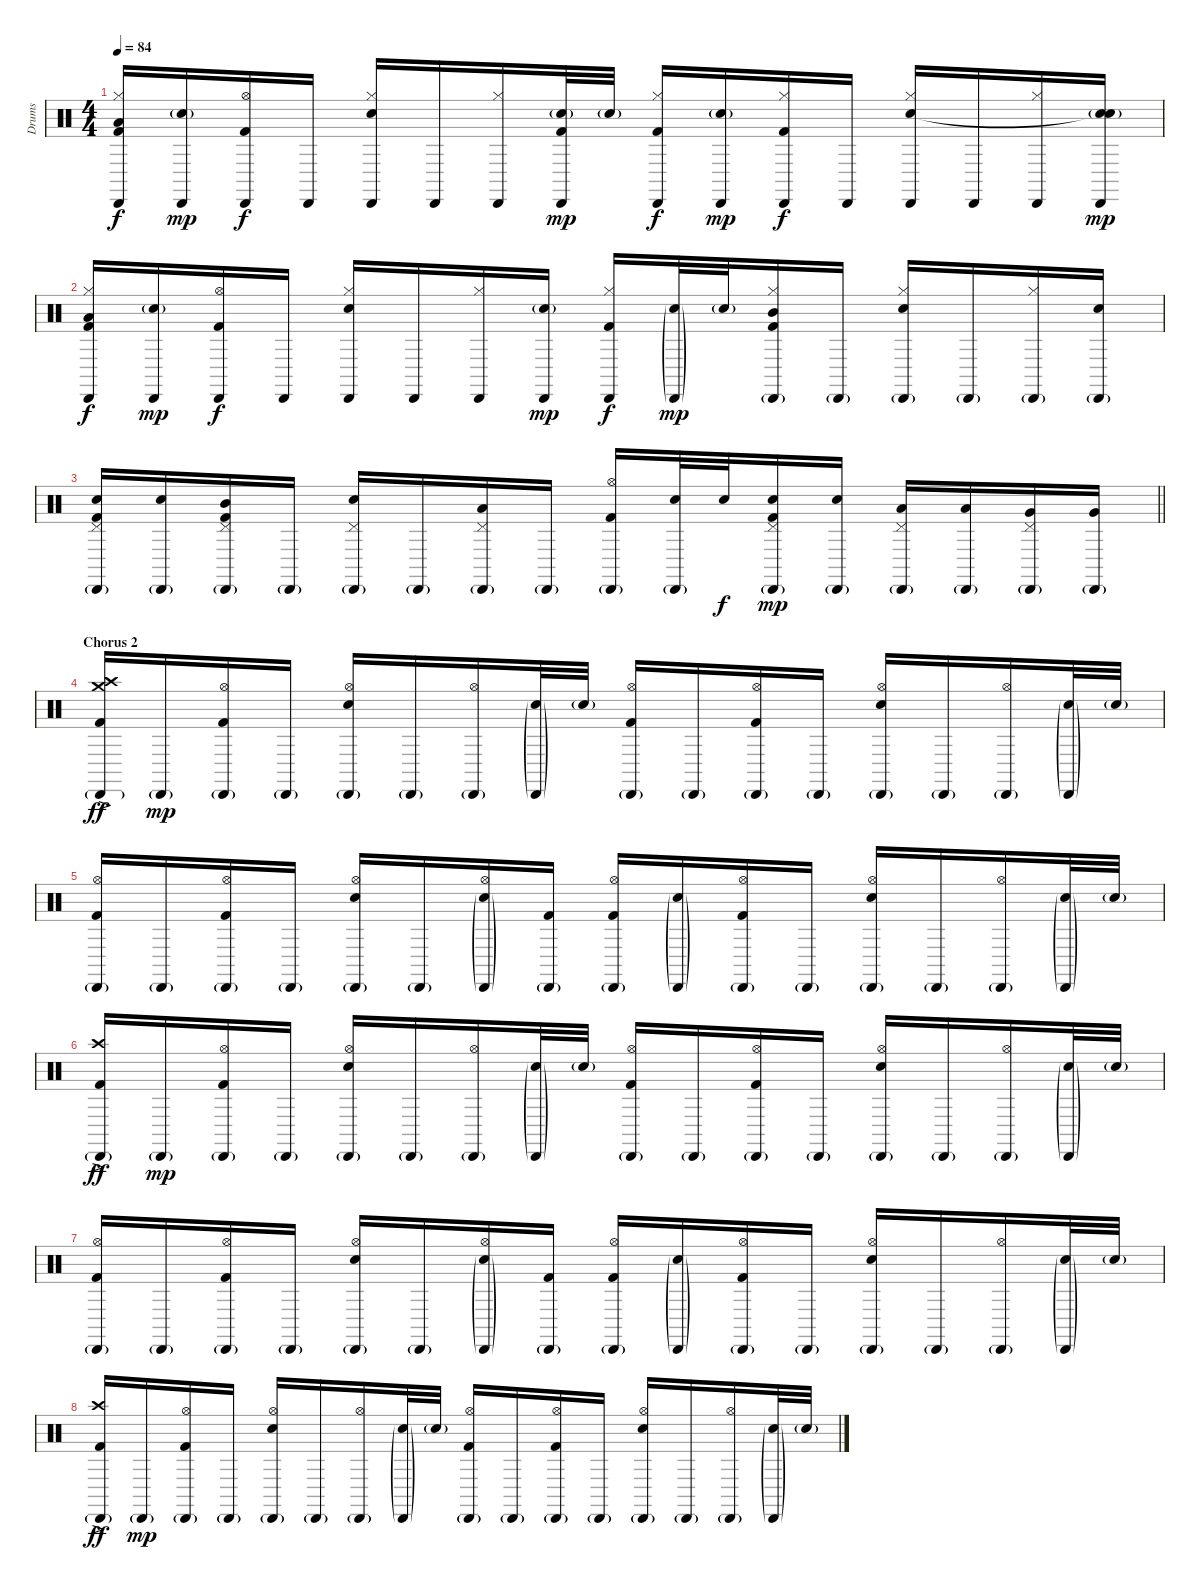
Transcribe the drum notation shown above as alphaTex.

\track ("Drums" "Drums") {instrument percussion}
\staff {score}
\articulation defaults
\ts (4 4)
\tempo 84
\clef neutral
\ks c
("Hi-Hat (closed)" "Cabasa (hit)" "Low Floor Tom (hit)" "Kick (hit) 2").16{dy f} ("Cabasa (hit)" "Electric Snare (hit)"{g}).16{dy mp} ("Hi-Hat (open)" "Cabasa (hit)" "Kick (hit) 2").16{dy f} "Cabasa (hit)".16 ("Hi-Hat (closed)" "Cabasa (hit)" "Electric Snare (hit)").16 "Cabasa (hit)".16 ("Hi-Hat (closed)" "Cabasa (hit)").16 ("Cabasa (hit)" "Electric Snare (hit)"{g} "Kick (hit) 2").32{dy mp} "Electric Snare (hit)"{g}.32 ("Hi-Hat (closed)" "Cabasa (hit)" "Kick (hit) 2").16{dy f} ("Cabasa (hit)" "Electric Snare (hit)"{g}).16{dy mp} ("Hi-Hat (closed)" "Cabasa (hit)" "Kick (hit) 2").16{dy f} "Cabasa (hit)".16 ("Hi-Hat (closed)" "Cabasa (hit)" "Electric Snare (hit)").16 "Cabasa (hit)".16 ("Hi-Hat (closed)" "Cabasa (hit)").16 ("Cabasa (hit)" "Electric Snare (hit)"{g} "Snare (hit)"{t}).16{dy mp} |
("Hi-Hat (closed)" "Cabasa (hit)" "Low Floor Tom (hit)" "Kick (hit) 2").16{dy f} ("Cabasa (hit)" "Electric Snare (hit)"{g}).16{dy mp} ("Hi-Hat (open)" "Cabasa (hit)" "Kick (hit) 2").16{dy f} "Cabasa (hit)".16 ("Hi-Hat (closed)" "Cabasa (hit)" "Electric Snare (hit)").16 "Cabasa (hit)".16 ("Hi-Hat (closed)" "Cabasa (hit)").16 ("Cabasa (hit)" "Electric Snare (hit)"{g}).16{dy mp} ("Hi-Hat (closed)" "Cabasa (hit)" "Kick (hit) 2").16{dy f volume 15} ("Cabasa (hit)"{g} "Electric Snare (hit)"{g}).32{dy mp} "Electric Snare (hit)"{g}.32 ("Hi-Hat (closed)" "Cabasa (hit)"{g} "Mid Tom (hit)" "Kick (hit) 2").16 "Cabasa (hit)"{g}.16 ("Hi-Hat (closed)" "Cabasa (hit)"{g} "Electric Snare (hit)").16 "Cabasa (hit)"{g}.16 ("Hi-Hat (closed)" "Cabasa (hit)"{g}).16 ("Cabasa (hit)"{g} "Electric Snare (hit)").16 |
\barLineRight lightlight
("Pedal Hi-Hat (hit)" "Cabasa (hit)"{g} "Electric Snare (hit)" "Kick (hit) 2").16 ("Cabasa (hit)"{g} "Electric Snare (hit)").16 ("Pedal Hi-Hat (hit)" "Cabasa (hit)"{g} "Mid Tom (hit)" "Kick (hit) 2").16 "Cabasa (hit)"{g}.16 ("Pedal Hi-Hat (hit)" "Cabasa (hit)"{g} "Electric Snare (hit)").16 "Cabasa (hit)"{g}.16 ("Pedal Hi-Hat (hit)" "Cabasa (hit)"{g} "Low Tom (hit)").16 "Cabasa (hit)"{g}.16 ("Hi-Hat (open)" "Cabasa (hit)"{g} "Kick (hit) 2").16 ("Cabasa (hit)"{g} "Electric Snare (hit)").32 "Electric Snare (hit)".32{dy f} ("Pedal Hi-Hat (hit)" "Cabasa (hit)"{g} "Electric Snare (hit)" "Kick (hit) 2").16{dy mp} ("Cabasa (hit)"{g} "Electric Snare (hit)").16 ("Pedal Hi-Hat (hit)" "Cabasa (hit)"{g} "Low Tom (hit)").16 ("Cabasa (hit)"{g} "Low Tom (hit)").16 ("Pedal Hi-Hat (hit)" "Cabasa (hit)"{g} "Very Low Tom (hit)").16 ("Cabasa (hit)"{g} "Very Low Tom (hit)").16 |
\section ("" "Chorus 2")
("Crash high (hit)" "Crash medium (hit)" "Cabasa (hit)"{g} "Kick (hit) 2"{ac}).16{dy ff volume 13} "Cabasa (hit)"{g}.16{dy mp} ("Hi-Hat (open)" "Cabasa (hit)"{g} "Kick (hit) 2").16 "Cabasa (hit)"{g}.16 ("Hi-Hat (open)" "Cabasa (hit)"{g} "Electric Snare (hit)").16 "Cabasa (hit)"{g}.16 ("Hi-Hat (open)" "Cabasa (hit)"{g}).16 ("Cabasa (hit)"{g} "Electric Snare (hit)"{g}).32 "Electric Snare (hit)"{g}.32 ("Hi-Hat (open)" "Cabasa (hit)"{g} "Kick (hit) 2").16 "Cabasa (hit)"{g}.16 ("Hi-Hat (open)" "Cabasa (hit)"{g} "Kick (hit) 2").16 "Cabasa (hit)"{g}.16 ("Hi-Hat (open)" "Cabasa (hit)"{g} "Electric Snare (hit)").16 "Cabasa (hit)"{g}.16 ("Hi-Hat (open)" "Cabasa (hit)"{g}).16 ("Cabasa (hit)"{g} "Electric Snare (hit)"{g}).32 "Electric Snare (hit)"{g}.32 |
("Hi-Hat (open)" "Cabasa (hit)"{g} "Kick (hit) 2").16 "Cabasa (hit)"{g}.16 ("Hi-Hat (open)" "Cabasa (hit)"{g} "Kick (hit) 2").16 "Cabasa (hit)"{g}.16 ("Hi-Hat (open)" "Cabasa (hit)"{g} "Electric Snare (hit)").16 "Cabasa (hit)"{g}.16 ("Hi-Hat (open)" "Cabasa (hit)"{g} "Electric Snare (hit)"{g}).16 ("Cabasa (hit)"{g} "Kick (hit) 2").16 ("Hi-Hat (open)" "Cabasa (hit)"{g} "Kick (hit) 2").16 ("Cabasa (hit)"{g} "Electric Snare (hit)"{g}).16 ("Hi-Hat (open)" "Cabasa (hit)"{g} "Kick (hit) 2").16 "Cabasa (hit)"{g}.16 ("Hi-Hat (open)" "Cabasa (hit)"{g} "Electric Snare (hit)").16 "Cabasa (hit)"{g}.16 ("Hi-Hat (open)" "Cabasa (hit)"{g}).16 ("Cabasa (hit)"{g} "Electric Snare (hit)"{g}).32 "Electric Snare (hit)"{g}.32 |
("Crash high (hit)" "Cabasa (hit)"{g} "Kick (hit) 2"{ac}).16{dy ff} "Cabasa (hit)"{g}.16{dy mp} ("Hi-Hat (open)" "Cabasa (hit)"{g} "Kick (hit) 2").16 "Cabasa (hit)"{g}.16 ("Hi-Hat (open)" "Cabasa (hit)"{g} "Electric Snare (hit)").16 "Cabasa (hit)"{g}.16 ("Hi-Hat (open)" "Cabasa (hit)"{g}).16 ("Cabasa (hit)"{g} "Electric Snare (hit)"{g}).32 "Electric Snare (hit)"{g}.32 ("Hi-Hat (open)" "Cabasa (hit)"{g} "Kick (hit) 2").16 "Cabasa (hit)"{g}.16 ("Hi-Hat (open)" "Cabasa (hit)"{g} "Kick (hit) 2").16 "Cabasa (hit)"{g}.16 ("Hi-Hat (open)" "Cabasa (hit)"{g} "Electric Snare (hit)").16 "Cabasa (hit)"{g}.16 ("Hi-Hat (open)" "Cabasa (hit)"{g}).16 ("Cabasa (hit)"{g} "Electric Snare (hit)"{g}).32 "Electric Snare (hit)"{g}.32 |
("Hi-Hat (open)" "Cabasa (hit)"{g} "Kick (hit) 2").16 "Cabasa (hit)"{g}.16 ("Hi-Hat (open)" "Cabasa (hit)"{g} "Kick (hit) 2").16 "Cabasa (hit)"{g}.16 ("Hi-Hat (open)" "Cabasa (hit)"{g} "Electric Snare (hit)").16 "Cabasa (hit)"{g}.16 ("Hi-Hat (open)" "Cabasa (hit)"{g} "Electric Snare (hit)"{g}).16 ("Cabasa (hit)"{g} "Kick (hit) 2").16 ("Hi-Hat (open)" "Cabasa (hit)"{g} "Kick (hit) 2").16 ("Cabasa (hit)"{g} "Electric Snare (hit)"{g}).16 ("Hi-Hat (open)" "Cabasa (hit)"{g} "Kick (hit) 2").16 "Cabasa (hit)"{g}.16 ("Hi-Hat (open)" "Cabasa (hit)"{g} "Electric Snare (hit)").16 "Cabasa (hit)"{g}.16 ("Hi-Hat (open)" "Cabasa (hit)"{g}).16 ("Cabasa (hit)"{g} "Electric Snare (hit)"{g}).32 "Electric Snare (hit)"{g}.32 |
("Crash high (hit)" "Cabasa (hit)"{g} "Kick (hit) 2"{ac}).16{dy ff} "Cabasa (hit)"{g}.16{dy mp} ("Hi-Hat (open)" "Cabasa (hit)"{g} "Kick (hit) 2").16 "Cabasa (hit)"{g}.16 ("Hi-Hat (open)" "Cabasa (hit)"{g} "Electric Snare (hit)").16 "Cabasa (hit)"{g}.16 ("Hi-Hat (open)" "Cabasa (hit)"{g}).16 ("Cabasa (hit)"{g} "Electric Snare (hit)"{g}).32 "Electric Snare (hit)"{g}.32 ("Hi-Hat (open)" "Cabasa (hit)"{g} "Kick (hit) 2").16 "Cabasa (hit)"{g}.16 ("Hi-Hat (open)" "Cabasa (hit)"{g} "Kick (hit) 2").16 "Cabasa (hit)"{g}.16 ("Hi-Hat (open)" "Cabasa (hit)"{g} "Electric Snare (hit)").16 "Cabasa (hit)"{g}.16 ("Hi-Hat (open)" "Cabasa (hit)"{g}).16 ("Cabasa (hit)"{g} "Electric Snare (hit)"{g}).32 "Electric Snare (hit)"{g}.32
